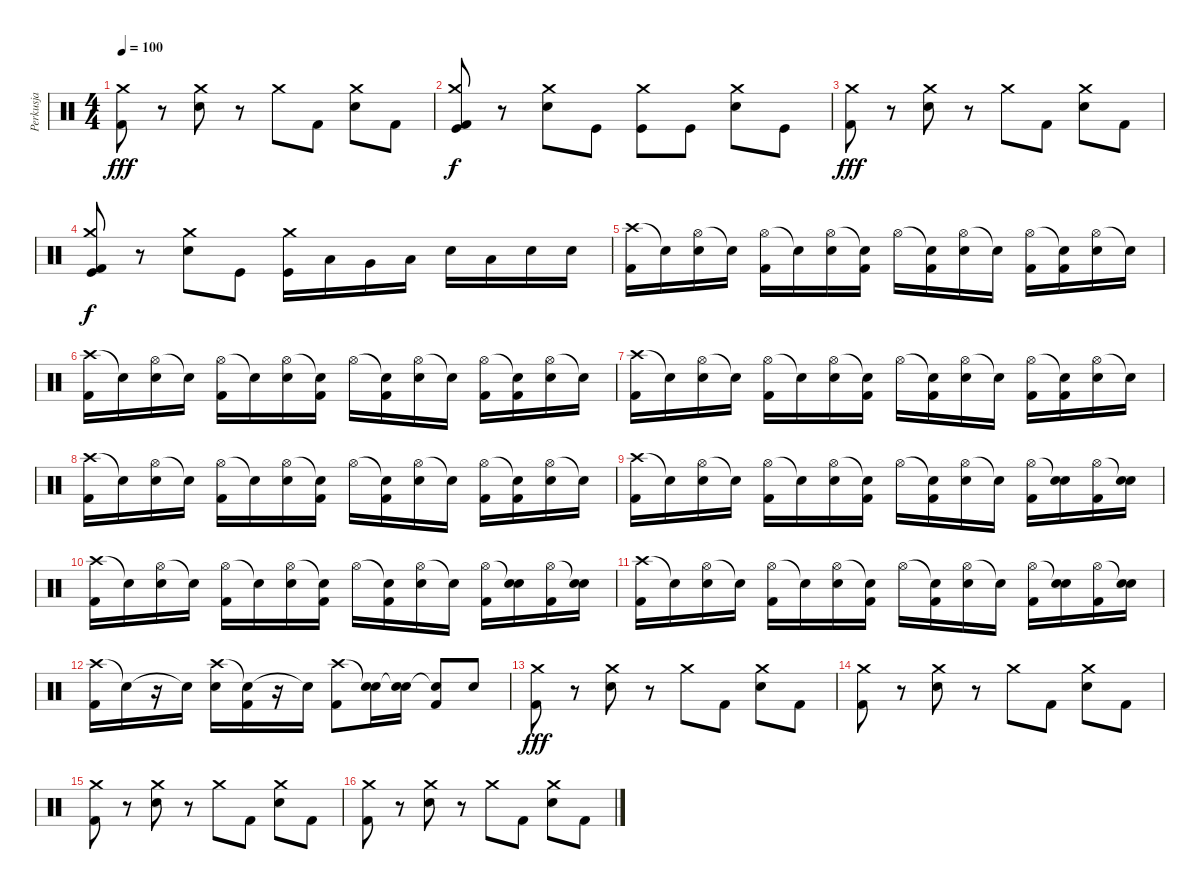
\track ("Perkusja" "Perkusja") {instrument percussion}
\staff {score}
\articulation defaults
\ts (4 4)
\tempo 100
\clef neutral
\ks c
("Kick (hit) 2" "Crash medium (hit)").8{dy fff} r.8 ("Crash medium (hit)" "Snare (hit) 2").8 r.8 "Crash medium (hit)".8 "Kick (hit) 2".8 ("Crash medium (hit)" "Snare (hit) 2").8 "Kick (hit) 2".8 |
("Crash medium (hit)" "Kick (hit) 2" "Kick (hit)").8{dy f} r.8 ("Crash medium (hit)" "Snare (hit) 2").8 "Kick (hit)".8 ("Crash medium (hit)" "Kick (hit)").8 "Kick (hit)".8 ("Crash medium (hit)" "Snare (hit) 2").8 "Kick (hit)".8 |
("Kick (hit) 2" "Crash medium (hit)").8{dy fff} r.8 ("Crash medium (hit)" "Snare (hit) 2").8 r.8 "Crash medium (hit)".8 "Kick (hit) 2".8 ("Crash medium (hit)" "Snare (hit) 2").8 "Kick (hit) 2".8 |
("Crash medium (hit)" "Kick (hit) 2" "Kick (hit)").8{dy f} r.8 ("Crash medium (hit)" "Snare (hit) 2").8 "Kick (hit)".8 ("Crash medium (hit)" "Kick (hit)").16 "Low Floor Tom (hit)".16 "Very Low Tom (hit)".16 "Low Floor Tom (hit)".16 "Snare (hit) 2".16 "Low Floor Tom (hit)".16 "Snare (hit) 2".16 "Snare (hit) 2".16 |
("Crash high (hit)" "Kick (hit) 2").16 "Snare (hit)"{t}.16 ("Hi-Hat (open)" "Snare (hit) 2").16 "Snare (hit)"{t}.16 ("Hi-Hat (open)" "Kick (hit) 2").16 "Snare (hit)"{t}.16 ("Hi-Hat (open)" "Snare (hit) 2").16 ("Snare (hit)"{t} "Kick (hit) 2").16 "Hi-Hat (open)".16 ("Snare (hit)"{t} "Kick (hit) 2").16 ("Hi-Hat (open)" "Snare (hit) 2").16 "Snare (hit)"{t}.16 ("Hi-Hat (open)" "Kick (hit) 2").16 ("Snare (hit)"{t} "Kick (hit) 2").16 ("Hi-Hat (open)" "Snare (hit) 2").16 "Snare (hit)"{t}.16 |
("Crash high (hit)" "Kick (hit) 2").16 "Snare (hit)"{t}.16 ("Hi-Hat (open)" "Snare (hit) 2").16 "Snare (hit)"{t}.16 ("Hi-Hat (open)" "Kick (hit) 2").16 "Snare (hit)"{t}.16 ("Hi-Hat (open)" "Snare (hit) 2").16 ("Snare (hit)"{t} "Kick (hit) 2").16 "Hi-Hat (open)".16 ("Snare (hit)"{t} "Kick (hit) 2").16 ("Hi-Hat (open)" "Snare (hit) 2").16 "Snare (hit)"{t}.16 ("Hi-Hat (open)" "Kick (hit) 2").16 ("Snare (hit)"{t} "Kick (hit) 2").16 ("Hi-Hat (open)" "Snare (hit) 2").16 "Snare (hit)"{t}.16 |
("Crash high (hit)" "Kick (hit) 2").16 "Snare (hit)"{t}.16 ("Hi-Hat (open)" "Snare (hit) 2").16 "Snare (hit)"{t}.16 ("Hi-Hat (open)" "Kick (hit) 2").16 "Snare (hit)"{t}.16 ("Hi-Hat (open)" "Snare (hit) 2").16 ("Snare (hit)"{t} "Kick (hit) 2").16 "Hi-Hat (open)".16 ("Snare (hit)"{t} "Kick (hit) 2").16 ("Hi-Hat (open)" "Snare (hit) 2").16 "Snare (hit)"{t}.16 ("Hi-Hat (open)" "Kick (hit) 2").16 ("Snare (hit)"{t} "Kick (hit) 2").16 ("Hi-Hat (open)" "Snare (hit) 2").16 "Snare (hit)"{t}.16 |
("Crash high (hit)" "Kick (hit) 2").16 "Snare (hit)"{t}.16 ("Hi-Hat (open)" "Snare (hit) 2").16 "Snare (hit)"{t}.16 ("Hi-Hat (open)" "Kick (hit) 2").16 "Snare (hit)"{t}.16 ("Hi-Hat (open)" "Snare (hit) 2").16 ("Snare (hit)"{t} "Kick (hit) 2").16 "Hi-Hat (open)".16 ("Snare (hit)"{t} "Kick (hit) 2").16 ("Hi-Hat (open)" "Snare (hit) 2").16 "Snare (hit)"{t}.16 ("Hi-Hat (open)" "Kick (hit) 2").16 ("Snare (hit)"{t} "Kick (hit) 2").16 ("Hi-Hat (open)" "Snare (hit) 2").16 "Snare (hit)"{t}.16 |
("Crash high (hit)" "Kick (hit) 2").16 "Snare (hit)"{t}.16 ("Hi-Hat (open)" "Snare (hit) 2").16 "Snare (hit)"{t}.16 ("Hi-Hat (open)" "Kick (hit) 2").16 "Snare (hit)"{t}.16 ("Hi-Hat (open)" "Snare (hit) 2").16 ("Snare (hit)"{t} "Kick (hit) 2").16 "Hi-Hat (open)".16 ("Snare (hit)"{t} "Kick (hit) 2").16 ("Hi-Hat (open)" "Snare (hit) 2").16 "Snare (hit)"{t}.16 ("Hi-Hat (open)" "Kick (hit) 2").16 ("Snare (hit)"{t} "Electric Snare (hit)").16 ("Hi-Hat (open)" "Kick (hit) 2").16 ("Snare (hit)"{t} "Electric Snare (hit)").16 |
("Crash high (hit)" "Kick (hit) 2").16 "Snare (hit)"{t}.16 ("Hi-Hat (open)" "Snare (hit) 2").16 "Snare (hit)"{t}.16 ("Hi-Hat (open)" "Kick (hit) 2").16 "Snare (hit)"{t}.16 ("Hi-Hat (open)" "Snare (hit) 2").16 ("Snare (hit)"{t} "Kick (hit) 2").16 "Hi-Hat (open)".16 ("Snare (hit)"{t} "Kick (hit) 2").16 ("Hi-Hat (open)" "Snare (hit) 2").16 "Snare (hit)"{t}.16 ("Hi-Hat (open)" "Kick (hit) 2").16 ("Snare (hit)"{t} "Electric Snare (hit)").16 ("Hi-Hat (open)" "Kick (hit) 2").16 ("Snare (hit)"{t} "Electric Snare (hit)").16 |
("Crash high (hit)" "Kick (hit) 2").16 "Snare (hit)"{t}.16 ("Hi-Hat (open)" "Snare (hit) 2").16 "Snare (hit)"{t}.16 ("Hi-Hat (open)" "Kick (hit) 2").16 "Snare (hit)"{t}.16 ("Hi-Hat (open)" "Snare (hit) 2").16 ("Snare (hit)"{t} "Kick (hit) 2").16 "Hi-Hat (open)".16 ("Snare (hit)"{t} "Kick (hit) 2").16 ("Hi-Hat (open)" "Snare (hit) 2").16 "Snare (hit)"{t}.16 ("Hi-Hat (open)" "Kick (hit) 2").16 ("Snare (hit)"{t} "Electric Snare (hit)").16 ("Hi-Hat (open)" "Kick (hit) 2").16 ("Snare (hit)"{t} "Electric Snare (hit)").16 |
("Crash high (hit)" "Kick (hit) 2").16 "Snare (hit)"{t}.16 r.16 "Snare (hit)"{t}.16 ("Crash high (hit)" "Snare (hit) 2").16 ("Snare (hit)"{t} "Kick (hit) 2").16 r.16 "Snare (hit)"{t}.16 ("Crash high (hit)" "Kick (hit) 2").8 ("Snare (hit)"{t} "Snare (hit) 2").16 ("Snare (hit)"{t} "Snare (hit) 2").16 ("Snare (hit)"{t} "Kick (hit) 2").8 "Snare (hit) 2".8 |
("Kick (hit) 2" "Crash medium (hit)").8{dy fff} r.8 ("Crash medium (hit)" "Snare (hit) 2").8 r.8 "Crash medium (hit)".8 "Kick (hit) 2".8 ("Crash medium (hit)" "Snare (hit) 2").8 "Kick (hit) 2".8 |
("Kick (hit) 2" "Crash medium (hit)").8 r.8 ("Crash medium (hit)" "Snare (hit) 2").8 r.8 "Crash medium (hit)".8 "Kick (hit) 2".8 ("Crash medium (hit)" "Snare (hit) 2").8 "Kick (hit) 2".8 |
("Kick (hit) 2" "Crash medium (hit)").8 r.8 ("Crash medium (hit)" "Snare (hit) 2").8 r.8 "Crash medium (hit)".8 "Kick (hit) 2".8 ("Crash medium (hit)" "Snare (hit) 2").8 "Kick (hit) 2".8 |
("Kick (hit) 2" "Crash medium (hit)").8 r.8 ("Crash medium (hit)" "Snare (hit) 2").8 r.8 "Crash medium (hit)".8 "Kick (hit) 2".8 ("Crash medium (hit)" "Snare (hit) 2").8 "Kick (hit) 2".8
